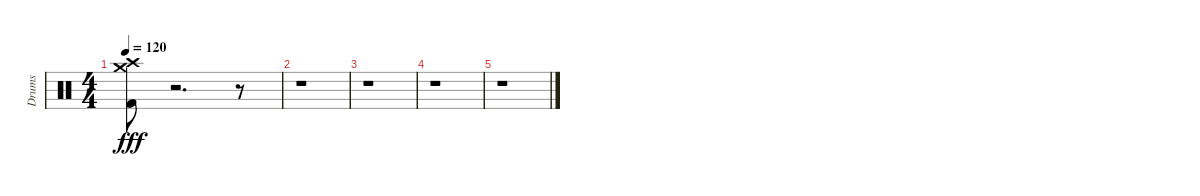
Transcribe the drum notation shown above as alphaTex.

\track ("Drums" "Drums") {instrument percussion}
\staff {score}
\articulation defaults
\ts (4 4)
\tempo 120
\clef neutral
\ks c
("Kick (hit) 2" "Crash high (hit)" "Crash medium (hit)").8{dy fff} r.2{d} r.8 |
r.1 |
r.1 |
r.1 |
r.1
